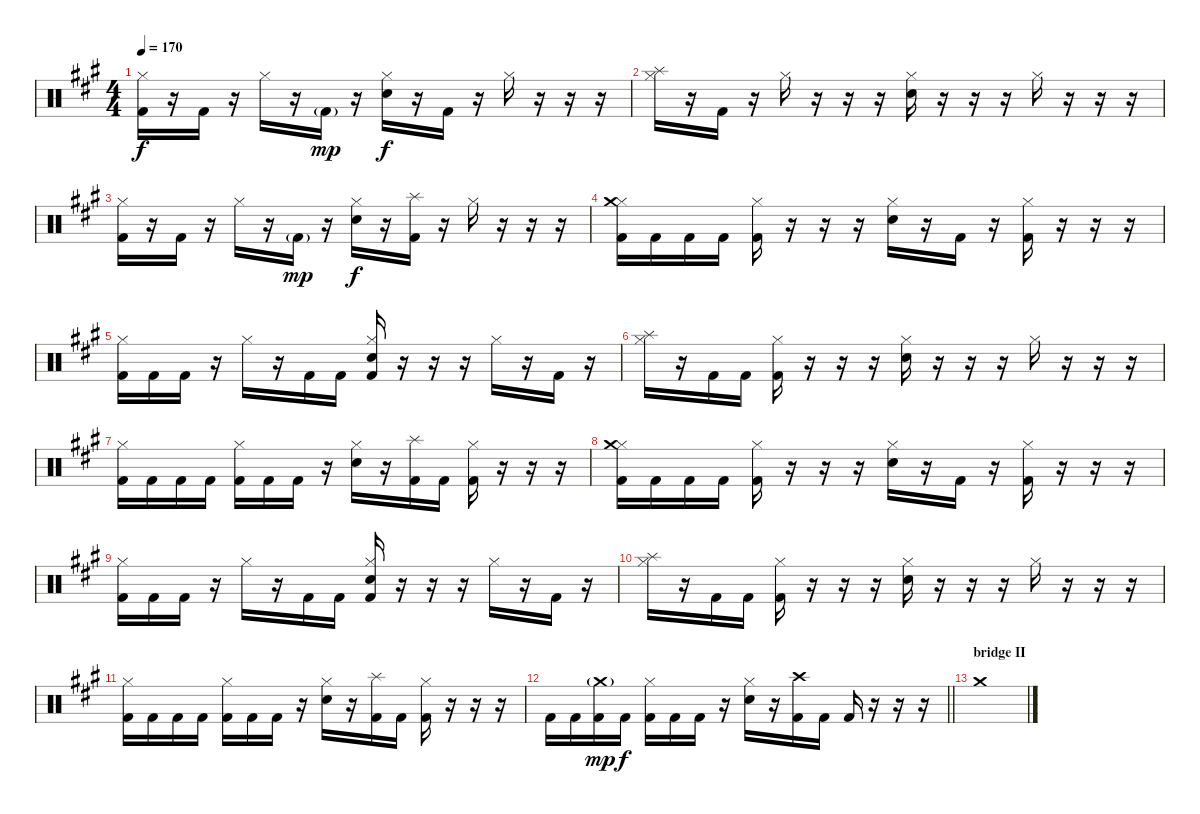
\track "" {instrument percussion}
\staff {score}
\articulation defaults
\ts (4 4)
\tempo 170
\clef neutral
\ks f#minor
("Kick (hit) 2" "Hi-Hat (closed)").16{dy f} r.16 "Kick (hit) 2".16 r.16 "Hi-Hat (closed)".16 r.16 "Kick (hit) 2"{g}.16{dy mp} r.16 ("Electric Snare (hit)" "Hi-Hat (closed)").16{dy f} r.16 "Kick (hit) 2".16 r.16 "Hi-Hat (closed)".16 r.16 r.16 r.16 |
("Hi-Hat (closed)" "Splash (hit)").16 r.16 "Kick (hit) 2".16 r.16 "Hi-Hat (closed)".16 r.16 r.16 r.16 ("Electric Snare (hit)" "Hi-Hat (closed)").16 r.16 r.16 r.16 "Hi-Hat (closed)".16 r.16 r.16 r.16 |
("Kick (hit) 2" "Hi-Hat (closed)").16 r.16 "Kick (hit) 2".16 r.16 "Hi-Hat (closed)".16 r.16 "Kick (hit) 2"{g}.16{dy mp} r.16 ("Electric Snare (hit)" "Hi-Hat (closed)").16{dy f} r.16 ("Kick (hit) 2" "Splash (hit)").16 r.16 "Hi-Hat (closed)".16 r.16 r.16 r.16 |
("Kick (hit) 2" "Hi-Hat (closed)" "Crash medium (hit)").16 "Kick (hit) 2".16 "Kick (hit) 2".16 "Kick (hit) 2".16 ("Kick (hit) 2" "Hi-Hat (closed)").16 r.16 r.16 r.16 ("Electric Snare (hit)" "Hi-Hat (closed)").16 r.16 "Kick (hit) 2".16 r.16 ("Kick (hit) 2" "Hi-Hat (closed)").16 r.16 r.16 r.16 |
("Kick (hit) 2" "Hi-Hat (closed)").16 "Kick (hit) 2".16 "Kick (hit) 2".16 r.16 "Hi-Hat (closed)".16 r.16 "Kick (hit) 2".16 "Kick (hit) 2".16 ("Kick (hit) 2" "Electric Snare (hit)" "Hi-Hat (closed)").16 r.16 r.16 r.16 "Hi-Hat (closed)".16 r.16 "Kick (hit) 2".16 r.16 |
("Hi-Hat (closed)" "Splash (hit)").16 r.16 "Kick (hit) 2".16 "Kick (hit) 2".16 ("Kick (hit) 2" "Hi-Hat (closed)").16 r.16 r.16 r.16 ("Electric Snare (hit)" "Hi-Hat (closed)").16 r.16 r.16 r.16 "Hi-Hat (closed)".16 r.16 r.16 r.16 |
("Kick (hit) 2" "Hi-Hat (closed)").16 "Kick (hit) 2".16 "Kick (hit) 2".16 "Kick (hit) 2".16 ("Kick (hit) 2" "Hi-Hat (closed)").16 "Kick (hit) 2".16 "Kick (hit) 2".16 r.16 ("Electric Snare (hit)" "Hi-Hat (closed)").16 r.16 ("Kick (hit) 2" "Splash (hit)").16 "Kick (hit) 2".16 ("Kick (hit) 2" "Hi-Hat (closed)").16 r.16 r.16 r.16 |
("Kick (hit) 2" "Hi-Hat (closed)" "Crash medium (hit)").16 "Kick (hit) 2".16 "Kick (hit) 2".16 "Kick (hit) 2".16 ("Kick (hit) 2" "Hi-Hat (closed)").16 r.16 r.16 r.16 ("Electric Snare (hit)" "Hi-Hat (closed)").16 r.16 "Kick (hit) 2".16 r.16 ("Kick (hit) 2" "Hi-Hat (closed)").16 r.16 r.16 r.16 |
("Kick (hit) 2" "Hi-Hat (closed)").16 "Kick (hit) 2".16 "Kick (hit) 2".16 r.16 "Hi-Hat (closed)".16 r.16 "Kick (hit) 2".16 "Kick (hit) 2".16 ("Kick (hit) 2" "Electric Snare (hit)" "Hi-Hat (closed)").16 r.16 r.16 r.16 "Hi-Hat (closed)".16 r.16 "Kick (hit) 2".16 r.16 |
("Hi-Hat (closed)" "Splash (hit)").16 r.16 "Kick (hit) 2".16 "Kick (hit) 2".16 ("Kick (hit) 2" "Hi-Hat (closed)").16 r.16 r.16 r.16 ("Electric Snare (hit)" "Hi-Hat (closed)").16 r.16 r.16 r.16 "Hi-Hat (closed)".16 r.16 r.16 r.16 |
("Kick (hit) 2" "Hi-Hat (closed)").16 "Kick (hit) 2".16 "Kick (hit) 2".16 "Kick (hit) 2".16 ("Kick (hit) 2" "Hi-Hat (closed)").16 "Kick (hit) 2".16 "Kick (hit) 2".16 r.16 ("Electric Snare (hit)" "Hi-Hat (closed)").16 r.16 ("Kick (hit) 2" "Splash (hit)").16 "Kick (hit) 2".16 ("Kick (hit) 2" "Hi-Hat (closed)").16 r.16 r.16 r.16 |
\barLineRight lightlight "Kick (hit) 2".16 "Kick (hit) 2".16
("Kick (hit) 2" "Crash medium (hit)"{g}).16{dy mp} "Kick (hit) 2".16{dy f} ("Kick (hit) 2" "Hi-Hat (closed)").16 "Kick (hit) 2".16 "Kick (hit) 2".16 r.16 ("Electric Snare (hit)" "Hi-Hat (closed)").16 r.16 ("Kick (hit) 2" "Crash high (hit)").16 "Kick (hit) 2".16 "Kick (hit) 2".16 r.16 r.16 r.16 |
\section ("" "bridge II")
"Crash medium (hit)".1
